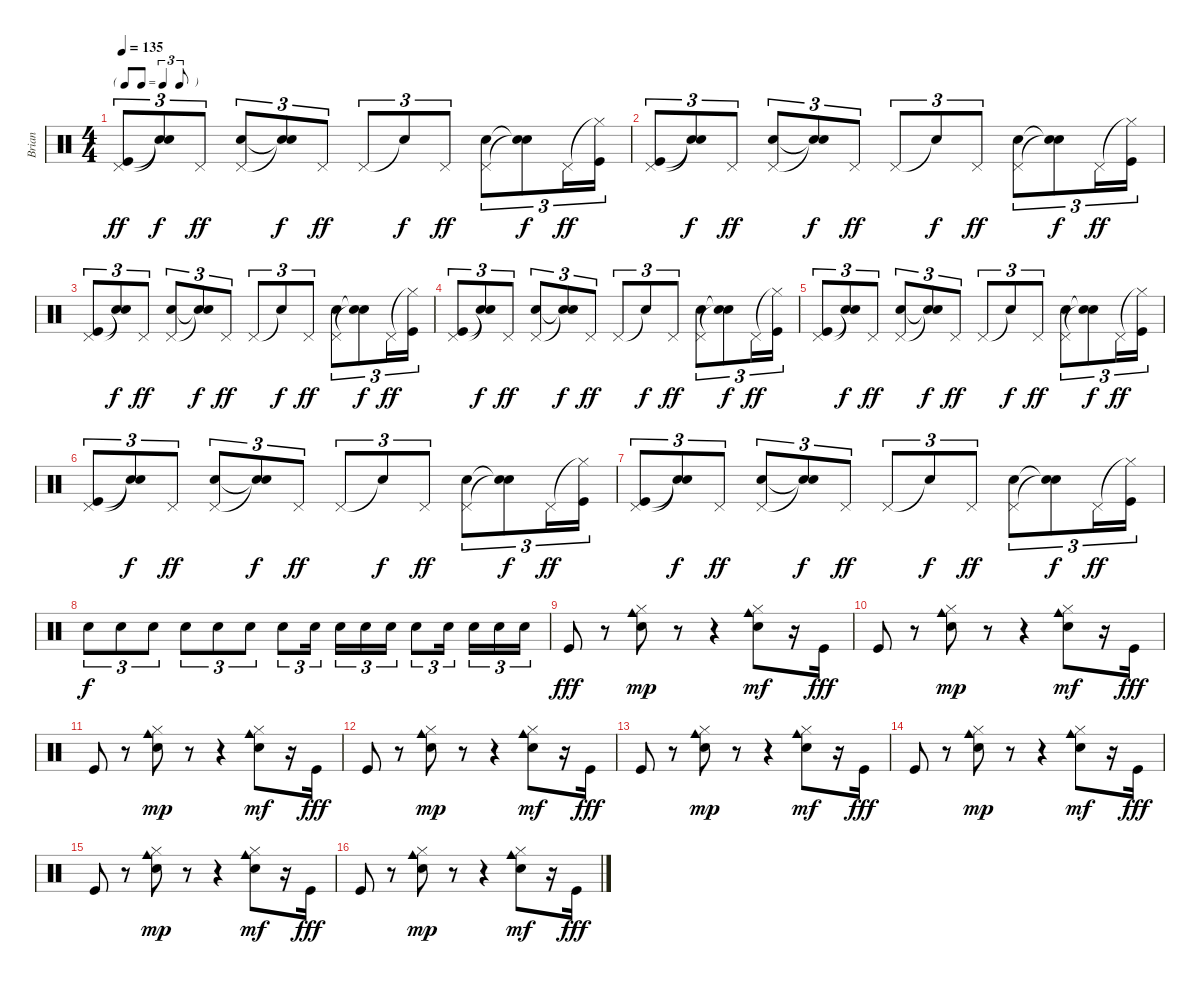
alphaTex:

\track ("Brian" "Brian") {instrument percussion}
\staff {score}
\articulation defaults
\ts (4 4)
\tf triplet8th
\tempo 135
\clef neutral
\ks c
("Pedal Hi-Hat (hit)" "Kick (hit)").8{tu (3 2) dy ff} ("Snare (hit)"{t} "Snare (hit)"{t}).8{tu (3 2) dy f} "Pedal Hi-Hat (hit)".8{tu (3 2) dy ff} ("Pedal Hi-Hat (hit)" "Snare (hit) 2").8{tu (3 2)} ("Snare (hit)"{t} "Snare (hit)"{t}).8{tu (3 2) dy f} "Pedal Hi-Hat (hit)".8{tu (3 2) dy ff} "Pedal Hi-Hat (hit)".8{tu (3 2)} "Snare (hit)"{t}.8{tu (3 2) dy f} "Pedal Hi-Hat (hit)".8{tu (3 2) dy ff} ("Pedal Hi-Hat (hit)" "Snare (hit) 2").8{tu (3 2)} ("Snare (hit)"{t} "Snare (hit)"{t}).8{tu (3 2) dy f} "Pedal Hi-Hat (hit)".16{tu (3 2) dy ff} ("Hi-Hat (closed)"{t} "Kick (hit)").16{tu (3 2)} |
("Pedal Hi-Hat (hit)" "Kick (hit)").8{tu (3 2)} ("Snare (hit)"{t} "Snare (hit)"{t}).8{tu (3 2) dy f} "Pedal Hi-Hat (hit)".8{tu (3 2) dy ff} ("Pedal Hi-Hat (hit)" "Snare (hit) 2").8{tu (3 2)} ("Snare (hit)"{t} "Snare (hit)"{t}).8{tu (3 2) dy f} "Pedal Hi-Hat (hit)".8{tu (3 2) dy ff} "Pedal Hi-Hat (hit)".8{tu (3 2)} "Snare (hit)"{t}.8{tu (3 2) dy f} "Pedal Hi-Hat (hit)".8{tu (3 2) dy ff} ("Pedal Hi-Hat (hit)" "Snare (hit) 2").8{tu (3 2)} ("Snare (hit)"{t} "Snare (hit)"{t}).8{tu (3 2) dy f} "Pedal Hi-Hat (hit)".16{tu (3 2) dy ff} ("Hi-Hat (closed)"{t} "Kick (hit)").16{tu (3 2)} |
("Pedal Hi-Hat (hit)" "Kick (hit)").8{tu (3 2)} ("Snare (hit)"{t} "Snare (hit)"{t}).8{tu (3 2) dy f} "Pedal Hi-Hat (hit)".8{tu (3 2) dy ff} ("Pedal Hi-Hat (hit)" "Snare (hit) 2").8{tu (3 2)} ("Snare (hit)"{t} "Snare (hit)"{t}).8{tu (3 2) dy f} "Pedal Hi-Hat (hit)".8{tu (3 2) dy ff} "Pedal Hi-Hat (hit)".8{tu (3 2)} "Snare (hit)"{t}.8{tu (3 2) dy f} "Pedal Hi-Hat (hit)".8{tu (3 2) dy ff} ("Pedal Hi-Hat (hit)" "Snare (hit) 2").8{tu (3 2)} ("Snare (hit)"{t} "Snare (hit)"{t}).8{tu (3 2) dy f} "Pedal Hi-Hat (hit)".16{tu (3 2) dy ff} ("Hi-Hat (closed)"{t} "Kick (hit)").16{tu (3 2)} |
("Pedal Hi-Hat (hit)" "Kick (hit)").8{tu (3 2)} ("Snare (hit)"{t} "Snare (hit)"{t}).8{tu (3 2) dy f} "Pedal Hi-Hat (hit)".8{tu (3 2) dy ff} ("Pedal Hi-Hat (hit)" "Snare (hit) 2").8{tu (3 2)} ("Snare (hit)"{t} "Snare (hit)"{t}).8{tu (3 2) dy f} "Pedal Hi-Hat (hit)".8{tu (3 2) dy ff} "Pedal Hi-Hat (hit)".8{tu (3 2)} "Snare (hit)"{t}.8{tu (3 2) dy f} "Pedal Hi-Hat (hit)".8{tu (3 2) dy ff} ("Pedal Hi-Hat (hit)" "Snare (hit) 2").8{tu (3 2)} ("Snare (hit)"{t} "Snare (hit)"{t}).8{tu (3 2) dy f} "Pedal Hi-Hat (hit)".16{tu (3 2) dy ff} ("Hi-Hat (closed)"{t} "Kick (hit)").16{tu (3 2)} |
("Pedal Hi-Hat (hit)" "Kick (hit)").8{tu (3 2)} ("Snare (hit)"{t} "Snare (hit)"{t}).8{tu (3 2) dy f} "Pedal Hi-Hat (hit)".8{tu (3 2) dy ff} ("Pedal Hi-Hat (hit)" "Snare (hit) 2").8{tu (3 2)} ("Snare (hit)"{t} "Snare (hit)"{t}).8{tu (3 2) dy f} "Pedal Hi-Hat (hit)".8{tu (3 2) dy ff} "Pedal Hi-Hat (hit)".8{tu (3 2)} "Snare (hit)"{t}.8{tu (3 2) dy f} "Pedal Hi-Hat (hit)".8{tu (3 2) dy ff} ("Pedal Hi-Hat (hit)" "Snare (hit) 2").8{tu (3 2)} ("Snare (hit)"{t} "Snare (hit)"{t}).8{tu (3 2) dy f} "Pedal Hi-Hat (hit)".16{tu (3 2) dy ff} ("Hi-Hat (closed)"{t} "Kick (hit)").16{tu (3 2)} |
("Pedal Hi-Hat (hit)" "Kick (hit)").8{tu (3 2)} ("Snare (hit)"{t} "Snare (hit)"{t}).8{tu (3 2) dy f} "Pedal Hi-Hat (hit)".8{tu (3 2) dy ff} ("Pedal Hi-Hat (hit)" "Snare (hit) 2").8{tu (3 2)} ("Snare (hit)"{t} "Snare (hit)"{t}).8{tu (3 2) dy f} "Pedal Hi-Hat (hit)".8{tu (3 2) dy ff} "Pedal Hi-Hat (hit)".8{tu (3 2)} "Snare (hit)"{t}.8{tu (3 2) dy f} "Pedal Hi-Hat (hit)".8{tu (3 2) dy ff} ("Pedal Hi-Hat (hit)" "Snare (hit) 2").8{tu (3 2)} ("Snare (hit)"{t} "Snare (hit)"{t}).8{tu (3 2) dy f} "Pedal Hi-Hat (hit)".16{tu (3 2) dy ff} ("Hi-Hat (closed)"{t} "Kick (hit)").16{tu (3 2)} |
("Pedal Hi-Hat (hit)" "Kick (hit)").8{tu (3 2)} ("Snare (hit)"{t} "Snare (hit)"{t}).8{tu (3 2) dy f} "Pedal Hi-Hat (hit)".8{tu (3 2) dy ff} ("Pedal Hi-Hat (hit)" "Snare (hit) 2").8{tu (3 2)} ("Snare (hit)"{t} "Snare (hit)"{t}).8{tu (3 2) dy f} "Pedal Hi-Hat (hit)".8{tu (3 2) dy ff} "Pedal Hi-Hat (hit)".8{tu (3 2)} "Snare (hit)"{t}.8{tu (3 2) dy f} "Pedal Hi-Hat (hit)".8{tu (3 2) dy ff} ("Pedal Hi-Hat (hit)" "Snare (hit) 2").8{tu (3 2)} ("Snare (hit)"{t} "Snare (hit)"{t}).8{tu (3 2) dy f} "Pedal Hi-Hat (hit)".16{tu (3 2) dy ff} ("Hi-Hat (closed)"{t} "Kick (hit)").16{tu (3 2)} |
"Snare (hit) 2".8{tu (3 2) dy f} "Snare (hit) 2".8{tu (3 2)} "Snare (hit) 2".8{tu (3 2)} "Snare (hit) 2".8{tu (3 2)} "Snare (hit) 2".8{tu (3 2)} "Snare (hit) 2".8{tu (3 2)} "Snare (hit) 2".8{tu (3 2)} "Snare (hit) 2".16{tu (3 2)} "Snare (hit) 2".16{tu (3 2)} "Snare (hit) 2".16{tu (3 2)} "Snare (hit) 2".16{tu (3 2)} "Snare (hit) 2".8{tu (3 2)} "Snare (hit) 2".16{tu (3 2)} "Snare (hit) 2".16{tu (3 2)} "Snare (hit) 2".16{tu (3 2)} "Snare (hit) 2".16{tu (3 2)} |
"Kick (hit)".8{dy fff} r.8 ("Cowbell medium (hit)" "Hi-Hat (closed)" "Snare (hit) 2").8{dy mp} r.8 r.4 ("Cowbell medium (hit)" "Hi-Hat (closed)" "Snare (hit) 2").8{dy mf} r.16 "Kick (hit)".16{dy fff} |
"Kick (hit)".8 r.8 ("Cowbell medium (hit)" "Hi-Hat (closed)" "Snare (hit) 2").8{dy mp} r.8 r.4 ("Cowbell medium (hit)" "Hi-Hat (closed)" "Snare (hit) 2").8{dy mf} r.16 "Kick (hit)".16{dy fff} |
"Kick (hit)".8 r.8 ("Cowbell medium (hit)" "Hi-Hat (closed)" "Snare (hit) 2").8{dy mp} r.8 r.4 ("Cowbell medium (hit)" "Hi-Hat (closed)" "Snare (hit) 2").8{dy mf} r.16 "Kick (hit)".16{dy fff} |
"Kick (hit)".8 r.8 ("Cowbell medium (hit)" "Hi-Hat (closed)" "Snare (hit) 2").8{dy mp} r.8 r.4 ("Cowbell medium (hit)" "Hi-Hat (closed)" "Snare (hit) 2").8{dy mf} r.16 "Kick (hit)".16{dy fff} |
"Kick (hit)".8 r.8 ("Cowbell medium (hit)" "Hi-Hat (closed)" "Snare (hit) 2").8{dy mp} r.8 r.4 ("Cowbell medium (hit)" "Hi-Hat (closed)" "Snare (hit) 2").8{dy mf} r.16 "Kick (hit)".16{dy fff} |
"Kick (hit)".8 r.8 ("Cowbell medium (hit)" "Hi-Hat (closed)" "Snare (hit) 2").8{dy mp} r.8 r.4 ("Cowbell medium (hit)" "Hi-Hat (closed)" "Snare (hit) 2").8{dy mf} r.16 "Kick (hit)".16{dy fff} |
"Kick (hit)".8 r.8 ("Cowbell medium (hit)" "Hi-Hat (closed)" "Snare (hit) 2").8{dy mp} r.8 r.4 ("Cowbell medium (hit)" "Hi-Hat (closed)" "Snare (hit) 2").8{dy mf} r.16 "Kick (hit)".16{dy fff} |
"Kick (hit)".8 r.8 ("Cowbell medium (hit)" "Hi-Hat (closed)" "Snare (hit) 2").8{dy mp} r.8 r.4 ("Cowbell medium (hit)" "Hi-Hat (closed)" "Snare (hit) 2").8{dy mf} r.16 "Kick (hit)".16{dy fff}
